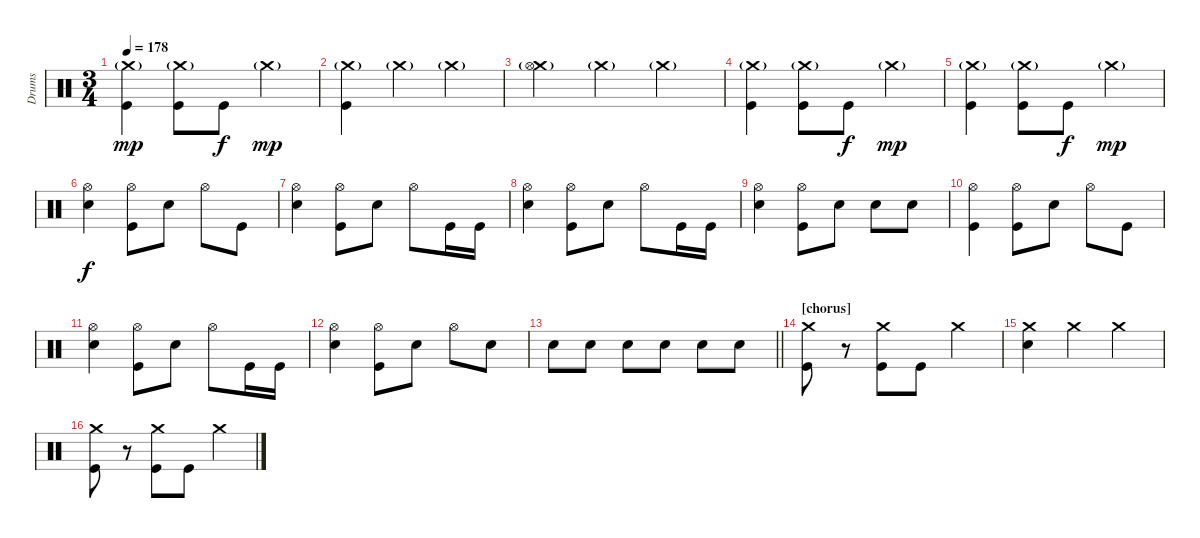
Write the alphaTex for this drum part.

\track ("Drums" "Drums") {instrument percussion}
\staff {score}
\articulation defaults
\ts (3 4)
\tempo 178
\clef neutral
\ks c
("Crash medium (hit)"{g} "Kick (hit)").4{dy mp} ("Crash medium (hit)"{g} "Kick (hit)").8 "Kick (hit)".8{dy f} "Crash medium (hit)"{g}.4{dy mp} |
("Crash medium (hit)"{g} "Kick (hit)").4 "Crash medium (hit)"{g}.4 "Crash medium (hit)"{g}.4 |
("Crash medium (hit)"{g} "Hi-Hat (open)").4 "Crash medium (hit)"{g}.4 "Crash medium (hit)"{g}.4 |
("Crash medium (hit)"{g} "Kick (hit)").4 ("Crash medium (hit)"{g} "Kick (hit)").8 "Kick (hit)".8{dy f} "Crash medium (hit)"{g}.4{dy mp} |
("Crash medium (hit)"{g} "Kick (hit)").4 ("Crash medium (hit)"{g} "Kick (hit)").8 "Kick (hit)".8{dy f} "Crash medium (hit)"{g}.4{dy mp} |
("Hi-Hat (open)" "Snare (hit) 2").4{dy f} ("Hi-Hat (open)" "Kick (hit)").8 "Snare (hit) 2".8 "Hi-Hat (open)".8 "Kick (hit)".8 |
("Hi-Hat (open)" "Snare (hit) 2").4 ("Hi-Hat (open)" "Kick (hit)").8 "Snare (hit) 2".8 "Hi-Hat (open)".8 "Kick (hit)".16 "Kick (hit)".16 |
("Hi-Hat (open)" "Snare (hit) 2").4 ("Hi-Hat (open)" "Kick (hit)").8 "Snare (hit) 2".8 "Hi-Hat (open)".8 "Kick (hit)".16 "Kick (hit)".16 |
("Hi-Hat (open)" "Snare (hit) 2").4 ("Hi-Hat (open)" "Kick (hit)").8 "Snare (hit) 2".8 "Snare (hit) 2".8 "Snare (hit) 2".8 |
("Hi-Hat (open)" "Kick (hit)").4 ("Hi-Hat (open)" "Kick (hit)").8 "Snare (hit) 2".8 "Hi-Hat (open)".8 "Kick (hit)".8 |
("Hi-Hat (open)" "Snare (hit) 2").4 ("Hi-Hat (open)" "Kick (hit)").8 "Snare (hit) 2".8 "Hi-Hat (open)".8 "Kick (hit)".16 "Kick (hit)".16 |
("Hi-Hat (open)" "Snare (hit) 2").4 ("Hi-Hat (open)" "Kick (hit)").8 "Snare (hit) 2".8 "Hi-Hat (open)".8 "Snare (hit) 2".8 |
\barLineRight lightlight "Snare (hit) 2".8 "Snare (hit) 2".8 "Snare (hit) 2".8 "Snare (hit) 2".8 "Snare (hit) 2".8 "Snare (hit) 2".8
|
\section ("" "[chorus]")
("Crash medium (hit)" "Kick (hit)").8 r.8 ("Crash medium (hit)" "Kick (hit)").8 "Kick (hit)".8 "Crash medium (hit)".4 |
("Crash medium (hit)" "Snare (hit) 2").4 "Crash medium (hit)".4 "Crash medium (hit)".4 |
("Crash medium (hit)" "Kick (hit)").8 r.8 ("Crash medium (hit)" "Kick (hit)").8 "Kick (hit)".8 "Crash medium (hit)".4
